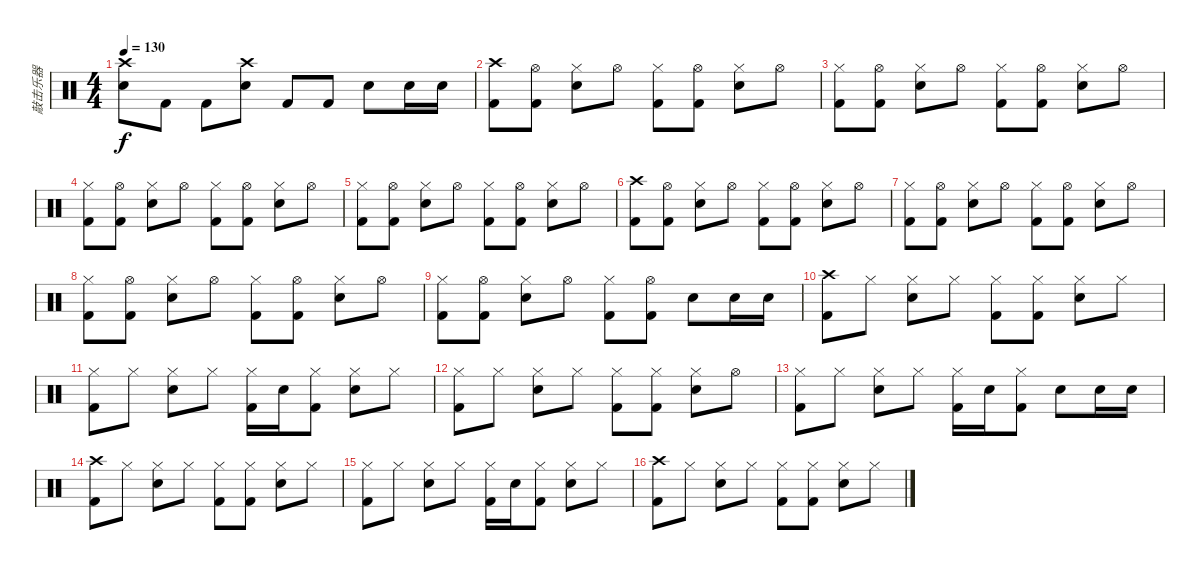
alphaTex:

\track ("敲击乐器" "敲击乐器") {instrument percussion}
\staff {score}
\articulation defaults
\ts (4 4)
\tempo 130
\clef neutral
\ks c
("Crash high (hit)" "Electric Snare (hit)").8{dy f} "Kick (hit) 2".8 "Kick (hit) 2".8 ("Crash high (hit)" "Electric Snare (hit)").8 "Kick (hit) 2".8 "Kick (hit) 2".8 "Electric Snare (hit)".8 "Electric Snare (hit)".16 "Electric Snare (hit)".16 |
("Crash high (hit)" "Kick (hit) 2").8 ("Hi-Hat (open)" "Kick (hit) 2").8 ("Hi-Hat (closed)" "Electric Snare (hit)").8 "Hi-Hat (open)".8 ("Hi-Hat (closed)" "Kick (hit) 2").8 ("Hi-Hat (open)" "Kick (hit) 2").8 ("Hi-Hat (closed)" "Electric Snare (hit)").8 "Hi-Hat (open)".8 |
("Hi-Hat (closed)" "Kick (hit) 2").8 ("Hi-Hat (open)" "Kick (hit) 2").8 ("Hi-Hat (closed)" "Electric Snare (hit)").8 "Hi-Hat (open)".8 ("Hi-Hat (closed)" "Kick (hit) 2").8 ("Hi-Hat (open)" "Kick (hit) 2").8 ("Hi-Hat (closed)" "Electric Snare (hit)").8 "Hi-Hat (open)".8 |
("Hi-Hat (closed)" "Kick (hit) 2").8 ("Hi-Hat (open)" "Kick (hit) 2").8 ("Hi-Hat (closed)" "Electric Snare (hit)").8 "Hi-Hat (open)".8 ("Hi-Hat (closed)" "Kick (hit) 2").8 ("Hi-Hat (open)" "Kick (hit) 2").8 ("Hi-Hat (closed)" "Electric Snare (hit)").8 "Hi-Hat (open)".8 |
("Hi-Hat (closed)" "Kick (hit) 2").8 ("Hi-Hat (open)" "Kick (hit) 2").8 ("Hi-Hat (closed)" "Electric Snare (hit)").8 "Hi-Hat (open)".8 ("Hi-Hat (closed)" "Kick (hit) 2").8 ("Hi-Hat (open)" "Kick (hit) 2").8 ("Hi-Hat (closed)" "Electric Snare (hit)").8 "Hi-Hat (open)".8 |
("Crash high (hit)" "Kick (hit) 2").8 ("Hi-Hat (open)" "Kick (hit) 2").8 ("Hi-Hat (closed)" "Electric Snare (hit)").8 "Hi-Hat (open)".8 ("Hi-Hat (closed)" "Kick (hit) 2").8 ("Hi-Hat (open)" "Kick (hit) 2").8 ("Hi-Hat (closed)" "Electric Snare (hit)").8 "Hi-Hat (open)".8 |
("Hi-Hat (closed)" "Kick (hit) 2").8 ("Hi-Hat (open)" "Kick (hit) 2").8 ("Hi-Hat (closed)" "Electric Snare (hit)").8 "Hi-Hat (open)".8 ("Hi-Hat (closed)" "Kick (hit) 2").8 ("Hi-Hat (open)" "Kick (hit) 2").8 ("Hi-Hat (closed)" "Electric Snare (hit)").8 "Hi-Hat (open)".8 |
("Hi-Hat (closed)" "Kick (hit) 2").8 ("Hi-Hat (open)" "Kick (hit) 2").8 ("Hi-Hat (closed)" "Electric Snare (hit)").8 "Hi-Hat (open)".8 ("Hi-Hat (closed)" "Kick (hit) 2").8 ("Hi-Hat (open)" "Kick (hit) 2").8 ("Hi-Hat (closed)" "Electric Snare (hit)").8 "Hi-Hat (open)".8 |
("Hi-Hat (closed)" "Kick (hit) 2").8 ("Hi-Hat (open)" "Kick (hit) 2").8 ("Hi-Hat (closed)" "Electric Snare (hit)").8 "Hi-Hat (open)".8 ("Hi-Hat (closed)" "Kick (hit) 2").8 ("Hi-Hat (open)" "Kick (hit) 2").8 "Electric Snare (hit)".8 "Electric Snare (hit)".16 "Electric Snare (hit)".16 |
("Crash high (hit)" "Kick (hit) 2").8 "Hi-Hat (closed)".8 ("Hi-Hat (closed)" "Electric Snare (hit)").8 "Hi-Hat (closed)".8 ("Hi-Hat (closed)" "Kick (hit) 2").8 ("Hi-Hat (closed)" "Kick (hit) 2").8 ("Hi-Hat (closed)" "Electric Snare (hit)").8 "Hi-Hat (closed)".8 |
("Hi-Hat (closed)" "Kick (hit) 2").8 "Hi-Hat (closed)".8 ("Hi-Hat (closed)" "Electric Snare (hit)").8 "Hi-Hat (closed)".8 ("Hi-Hat (closed)" "Kick (hit) 2").16 "Electric Snare (hit)".16 ("Hi-Hat (closed)" "Kick (hit) 2").8 ("Hi-Hat (closed)" "Electric Snare (hit)").8 "Hi-Hat (closed)".8 |
("Hi-Hat (closed)" "Kick (hit) 2").8 "Hi-Hat (closed)".8 ("Hi-Hat (closed)" "Electric Snare (hit)").8 "Hi-Hat (closed)".8 ("Hi-Hat (closed)" "Kick (hit) 2").8 ("Hi-Hat (closed)" "Kick (hit) 2").8 ("Hi-Hat (closed)" "Electric Snare (hit)").8 "Hi-Hat (open)".8 |
("Hi-Hat (closed)" "Kick (hit) 2").8 "Hi-Hat (closed)".8 ("Hi-Hat (closed)" "Electric Snare (hit)").8 "Hi-Hat (closed)".8 ("Hi-Hat (closed)" "Kick (hit) 2").16 "Electric Snare (hit)".16 ("Hi-Hat (closed)" "Kick (hit) 2").8 "Electric Snare (hit)".8 "Electric Snare (hit)".16 "Electric Snare (hit)".16 |
("Crash high (hit)" "Kick (hit) 2").8 "Hi-Hat (closed)".8 ("Hi-Hat (closed)" "Electric Snare (hit)").8 "Hi-Hat (closed)".8 ("Hi-Hat (closed)" "Kick (hit) 2").8 ("Hi-Hat (closed)" "Kick (hit) 2").8 ("Hi-Hat (closed)" "Electric Snare (hit)").8 "Hi-Hat (closed)".8 |
("Hi-Hat (closed)" "Kick (hit) 2").8 "Hi-Hat (closed)".8 ("Hi-Hat (closed)" "Electric Snare (hit)").8 "Hi-Hat (closed)".8 ("Hi-Hat (closed)" "Kick (hit) 2").16 "Electric Snare (hit)".16 ("Hi-Hat (closed)" "Kick (hit) 2").8 ("Hi-Hat (closed)" "Electric Snare (hit)").8 "Hi-Hat (closed)".8 |
("Crash high (hit)" "Kick (hit) 2").8 "Hi-Hat (closed)".8 ("Hi-Hat (closed)" "Electric Snare (hit)").8 "Hi-Hat (closed)".8 ("Hi-Hat (closed)" "Kick (hit) 2").8 ("Hi-Hat (closed)" "Kick (hit) 2").8 ("Hi-Hat (closed)" "Electric Snare (hit)").8 "Hi-Hat (closed)".8
